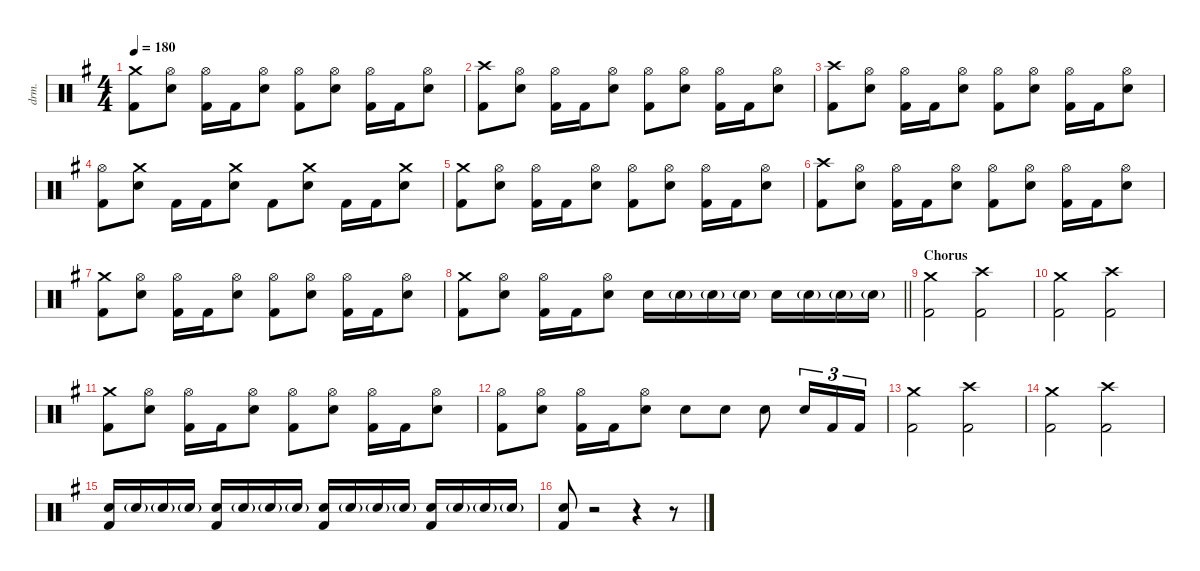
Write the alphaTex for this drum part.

\defaultSystemsLayout 4
\hideDynamics
\bracketExtendMode nobrackets
\otherSystemsTrackNameOrientation horizontal
\track ("Lars Ulrich" "drm.") {instrument percussion}
\staff {score}
\articulation defaults
\ts (4 4)
\tempo 180
\clef neutral
\ks eminor
("Crash medium (hit)"{acc forcenatural} "Kick (hit) 2"{acc forcenatural}).8{dy f beam Down} ("Hi-Hat (open)"{acc forcenatural} "Snare (hit) 2"{acc forcenatural}).8{beam Down} ("Hi-Hat (open)"{acc forcenatural} "Kick (hit) 2"{acc forcenatural}).16{beam Down} "Kick (hit) 2"{acc forcenatural}.16{beam Down} ("Hi-Hat (open)"{acc forcenatural} "Snare (hit) 2"{acc forcenatural}).8{beam Down} ("Hi-Hat (open)"{acc forcenatural} "Kick (hit) 2"{acc forcenatural}).8{beam Down} ("Hi-Hat (open)"{acc forcenatural} "Snare (hit) 2"{acc forcenatural}).8{beam Down} ("Hi-Hat (open)"{acc forcenatural} "Kick (hit) 2"{acc forcenatural}).16{beam Down} "Kick (hit) 2"{acc forcenatural}.16{beam Down} ("Hi-Hat (open)"{acc forcenatural} "Snare (hit) 2"{acc forcenatural}).8{beam Down} |
("Crash high (hit)"{acc forcenatural} "Kick (hit) 2"{acc forcenatural}).8{beam Down} ("Hi-Hat (open)"{acc forcenatural} "Snare (hit) 2"{acc forcenatural}).8{beam Down} ("Hi-Hat (open)"{acc forcenatural} "Kick (hit) 2"{acc forcenatural}).16{beam Down} "Kick (hit) 2"{acc forcenatural}.16{beam Down} ("Hi-Hat (open)"{acc forcenatural} "Snare (hit) 2"{acc forcenatural}).8{beam Down} ("Hi-Hat (open)"{acc forcenatural} "Kick (hit) 2"{acc forcenatural}).8{beam Down} ("Hi-Hat (open)"{acc forcenatural} "Snare (hit) 2"{acc forcenatural}).8{beam Down} ("Hi-Hat (open)"{acc forcenatural} "Kick (hit) 2"{acc forcenatural}).16{beam Down} "Kick (hit) 2"{acc forcenatural}.16{beam Down} ("Hi-Hat (open)"{acc forcenatural} "Snare (hit) 2"{acc forcenatural}).8{beam Down} |
("Crash high (hit)"{acc forcenatural} "Kick (hit) 2"{acc forcenatural}).8{beam Down} ("Hi-Hat (open)"{acc forcenatural} "Snare (hit) 2"{acc forcenatural}).8{beam Down} ("Hi-Hat (open)"{acc forcenatural} "Kick (hit) 2"{acc forcenatural}).16{beam Down} "Kick (hit) 2"{acc forcenatural}.16{beam Down} ("Hi-Hat (open)"{acc forcenatural} "Snare (hit) 2"{acc forcenatural}).8{beam Down} ("Hi-Hat (open)"{acc forcenatural} "Kick (hit) 2"{acc forcenatural}).8{beam Down} ("Hi-Hat (open)"{acc forcenatural} "Snare (hit) 2"{acc forcenatural}).8{beam Down} ("Hi-Hat (open)"{acc forcenatural} "Kick (hit) 2"{acc forcenatural}).16{beam Down} "Kick (hit) 2"{acc forcenatural}.16{beam Down} ("Hi-Hat (open)"{acc forcenatural} "Snare (hit) 2"{acc forcenatural}).8{beam Down} |
("Hi-Hat (open)"{acc forcenatural} "Kick (hit) 2"{acc forcenatural}).8{beam Down} ("Crash medium (hit)"{acc forcenatural} "Snare (hit) 2"{acc forcenatural}).8{beam Down} "Kick (hit) 2"{acc forcenatural}.16{beam Down} "Kick (hit) 2"{acc forcenatural}.16{beam Down} ("Crash medium (hit)"{acc forcenatural} "Snare (hit) 2"{acc forcenatural}).8{beam Down} "Kick (hit) 2"{acc forcenatural}.8{beam Down} ("Crash medium (hit)"{acc forcenatural} "Snare (hit) 2"{acc forcenatural}).8{beam Down} "Kick (hit) 2"{acc forcenatural}.16{beam Down} "Kick (hit) 2"{acc forcenatural}.16{beam Down} ("Crash medium (hit)"{acc forcenatural} "Snare (hit) 2"{acc forcenatural}).8{beam Down} |
("Crash medium (hit)"{acc forcenatural} "Kick (hit) 2"{acc forcenatural}).8{beam Down} ("Hi-Hat (open)"{acc forcenatural} "Snare (hit) 2"{acc forcenatural}).8{beam Down} ("Hi-Hat (open)"{acc forcenatural} "Kick (hit) 2"{acc forcenatural}).16{beam Down} "Kick (hit) 2"{acc forcenatural}.16{beam Down} ("Hi-Hat (open)"{acc forcenatural} "Snare (hit) 2"{acc forcenatural}).8{beam Down} ("Hi-Hat (open)"{acc forcenatural} "Kick (hit) 2"{acc forcenatural}).8{beam Down} ("Hi-Hat (open)"{acc forcenatural} "Snare (hit) 2"{acc forcenatural}).8{beam Down} ("Hi-Hat (open)"{acc forcenatural} "Kick (hit) 2"{acc forcenatural}).16{beam Down} "Kick (hit) 2"{acc forcenatural}.16{beam Down} ("Hi-Hat (open)"{acc forcenatural} "Snare (hit) 2"{acc forcenatural}).8{beam Down} |
("Crash high (hit)"{acc forcenatural} "Kick (hit) 2"{acc forcenatural}).8{beam Down} ("Hi-Hat (open)"{acc forcenatural} "Snare (hit) 2"{acc forcenatural}).8{beam Down} ("Hi-Hat (open)"{acc forcenatural} "Kick (hit) 2"{acc forcenatural}).16{beam Down} "Kick (hit) 2"{acc forcenatural}.16{beam Down} ("Hi-Hat (open)"{acc forcenatural} "Snare (hit) 2"{acc forcenatural}).8{beam Down} ("Hi-Hat (open)"{acc forcenatural} "Kick (hit) 2"{acc forcenatural}).8{beam Down} ("Hi-Hat (open)"{acc forcenatural} "Snare (hit) 2"{acc forcenatural}).8{beam Down} ("Hi-Hat (open)"{acc forcenatural} "Kick (hit) 2"{acc forcenatural}).16{beam Down} "Kick (hit) 2"{acc forcenatural}.16{beam Down} ("Hi-Hat (open)"{acc forcenatural} "Snare (hit) 2"{acc forcenatural}).8{beam Down} |
("Crash medium (hit)"{acc forcenatural} "Kick (hit) 2"{acc forcenatural}).8{beam Down} ("Hi-Hat (open)"{acc forcenatural} "Snare (hit) 2"{acc forcenatural}).8{beam Down} ("Hi-Hat (open)"{acc forcenatural} "Kick (hit) 2"{acc forcenatural}).16{beam Down} "Kick (hit) 2"{acc forcenatural}.16{beam Down} ("Hi-Hat (open)"{acc forcenatural} "Snare (hit) 2"{acc forcenatural}).8{beam Down} ("Hi-Hat (open)"{acc forcenatural} "Kick (hit) 2"{acc forcenatural}).8{beam Down} ("Hi-Hat (open)"{acc forcenatural} "Snare (hit) 2"{acc forcenatural}).8{beam Down} ("Hi-Hat (open)"{acc forcenatural} "Kick (hit) 2"{acc forcenatural}).16{beam Down} "Kick (hit) 2"{acc forcenatural}.16{beam Down} ("Hi-Hat (open)"{acc forcenatural} "Snare (hit) 2"{acc forcenatural}).8{beam Down} |
\barLineRight lightlight
("Crash medium (hit)"{acc forcenatural} "Kick (hit) 2"{acc forcenatural}).8{beam Down} ("Hi-Hat (open)"{acc forcenatural} "Snare (hit) 2"{acc forcenatural}).8{beam Down} ("Hi-Hat (open)"{acc forcenatural} "Kick (hit) 2"{acc forcenatural}).16{beam Down} "Kick (hit) 2"{acc forcenatural}.16{beam Down} ("Hi-Hat (open)"{acc forcenatural} "Snare (hit) 2"{acc forcenatural}).8{beam Down} "Snare (hit) 2"{acc forcenatural}.16{beam Down} "Snare (hit) 2"{g acc forcenatural}.16{dy ff beam Down} "Snare (hit) 2"{g acc forcenatural}.16{beam Down} "Snare (hit) 2"{g acc forcenatural}.16{beam Down} "Snare (hit) 2"{acc forcenatural}.16{dy f beam Down} "Snare (hit) 2"{g acc forcenatural}.16{dy ff beam Down} "Snare (hit) 2"{g acc forcenatural}.16{beam Down} "Snare (hit) 2"{g acc forcenatural}.16{beam Down} |
\section ("" "Chorus")
("Crash medium (hit)"{acc forcenatural} "Kick (hit) 2"{acc forcenatural}).2{dy f beam Down} ("Crash high (hit)"{acc forcenatural} "Kick (hit) 2"{acc forcenatural}).2{beam Down} |
("Crash medium (hit)"{acc forcenatural} "Kick (hit) 2"{acc forcenatural}).2{beam Down} ("Crash high (hit)"{acc forcenatural} "Kick (hit) 2"{acc forcenatural}).2{beam Down} |
("Crash medium (hit)"{acc forcenatural} "Kick (hit) 2"{acc forcenatural}).8{beam Down} ("Hi-Hat (open)"{acc forcenatural} "Snare (hit) 2"{acc forcenatural}).8{beam Down} ("Hi-Hat (open)"{acc forcenatural} "Kick (hit) 2"{acc forcenatural}).16{beam Down} "Kick (hit) 2"{acc forcenatural}.16{beam Down} ("Hi-Hat (open)"{acc forcenatural} "Snare (hit) 2"{acc forcenatural}).8{beam Down} ("Hi-Hat (open)"{acc forcenatural} "Kick (hit) 2"{acc forcenatural}).8{beam Down} ("Hi-Hat (open)"{acc forcenatural} "Snare (hit) 2"{acc forcenatural}).8{beam Down} ("Hi-Hat (open)"{acc forcenatural} "Kick (hit) 2"{acc forcenatural}).16{beam Down} "Kick (hit) 2"{acc forcenatural}.16{beam Down} ("Hi-Hat (open)"{acc forcenatural} "Snare (hit) 2"{acc forcenatural}).8{beam Down} |
("Hi-Hat (open)"{acc forcenatural} "Kick (hit) 2"{acc forcenatural}).8{beam Down} ("Hi-Hat (open)"{acc forcenatural} "Snare (hit) 2"{acc forcenatural}).8{beam Down} ("Hi-Hat (open)"{acc forcenatural} "Kick (hit) 2"{acc forcenatural}).16{beam Down} "Kick (hit) 2"{acc forcenatural}.16{beam Down} ("Hi-Hat (open)"{acc forcenatural} "Snare (hit) 2"{acc forcenatural}).8{beam Down} "Snare (hit) 2"{acc forcenatural}.8{beam Down} "Snare (hit) 2"{acc forcenatural}.8{beam Down} "Snare (hit) 2"{acc forcenatural}.8{beam Down} "Snare (hit) 2"{acc forcenatural}.16{tu (3 2) beam Up} "Kick (hit) 2"{acc forcenatural}.16{tu (3 2) beam Up} "Kick (hit) 2"{acc forcenatural}.16{tu (3 2) beam Up} |
("Crash medium (hit)"{acc forcenatural} "Kick (hit) 2"{acc forcenatural}).2{beam Down} ("Crash high (hit)"{acc forcenatural} "Kick (hit) 2"{acc forcenatural}).2{beam Down} |
("Crash medium (hit)"{acc forcenatural} "Kick (hit) 2"{acc forcenatural}).2{beam Down} ("Crash high (hit)"{acc forcenatural} "Kick (hit) 2"{acc forcenatural}).2{beam Down} |
("Snare (hit) 2"{acc forcenatural} "Kick (hit) 2"{acc forcenatural}).16{beam Up} "Snare (hit) 2"{g acc forcenatural}.16{dy ff beam Up} "Snare (hit) 2"{g acc forcenatural}.16{beam Up} "Snare (hit) 2"{g acc forcenatural}.16{beam Up} ("Snare (hit) 2"{acc forcenatural} "Kick (hit) 2"{acc forcenatural}).16{dy f beam Up} "Snare (hit) 2"{g acc forcenatural}.16{dy ff beam Up} "Snare (hit) 2"{g acc forcenatural}.16{beam Up} "Snare (hit) 2"{g acc forcenatural}.16{beam Up} ("Snare (hit) 2"{acc forcenatural} "Kick (hit) 2"{acc forcenatural}).16{dy f beam Up} "Snare (hit) 2"{g acc forcenatural}.16{dy ff beam Up} "Snare (hit) 2"{g acc forcenatural}.16{beam Up} "Snare (hit) 2"{g acc forcenatural}.16{beam Up} ("Snare (hit) 2"{acc forcenatural} "Kick (hit) 2"{acc forcenatural}).16{dy f beam Up} "Snare (hit) 2"{g acc forcenatural}.16{dy ff beam Up} "Snare (hit) 2"{g acc forcenatural}.16{beam Up} "Snare (hit) 2"{g acc forcenatural}.16{beam Up} |
("Snare (hit) 2"{acc forcenatural} "Kick (hit) 2"{acc forcenatural}).8{dy f beam Up} r.2{beam Up} r.4{beam Up} r.8{beam Up}
